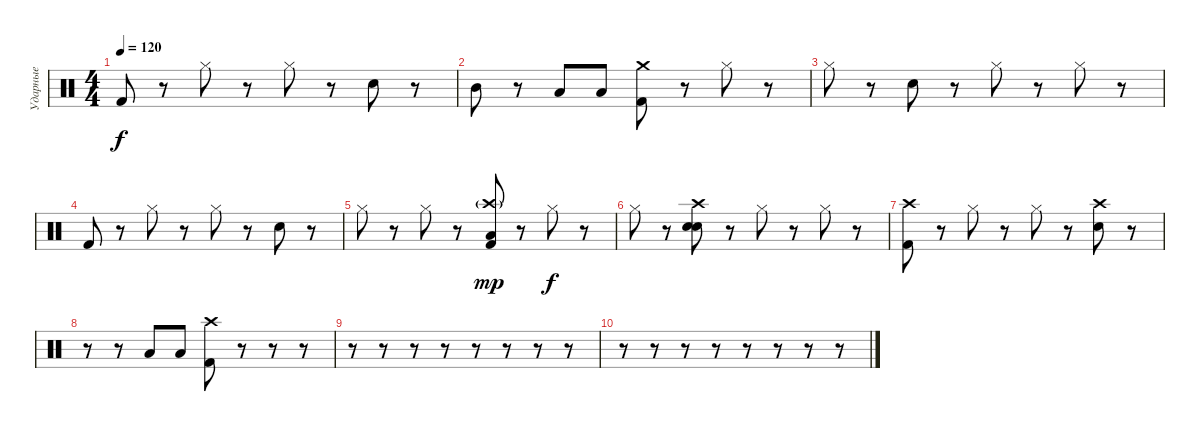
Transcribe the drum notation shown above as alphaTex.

\track ("Ударные" "Ударные") {instrument percussion}
\staff {score}
\articulation defaults
\ts (4 4)
\tempo 120
\clef neutral
\ks c "Kick (hit) 2".8{dy f}
r.8 "Hi-Hat (closed)".8 r.8 "Hi-Hat (closed)".8 r.8 "Snare (hit) 2".8 r.8 |
"Mid Tom (hit)".8 r.8 "Low Tom (hit)".8 "Low Tom (hit)".8 ("Crash medium (hit)" "Kick (hit) 2").8 r.8 "Hi-Hat (closed)".8 r.8 |
"Hi-Hat (closed)".8 r.8 "Snare (hit) 2".8 r.8 "Hi-Hat (closed)".8 r.8 "Hi-Hat (closed)".8 r.8 |
"Kick (hit) 2".8 r.8 "Hi-Hat (closed)".8 r.8 "Hi-Hat (closed)".8 r.8 "Snare (hit) 2".8 r.8 |
"Hi-Hat (closed)".8 r.8 "Hi-Hat (closed)".8 r.8 ("Crash high (hit)"{g} "Kick (hit) 2" "Low Floor Tom (hit)").8{dy mp} r.8 "Hi-Hat (closed)".8{dy f} r.8 |
"Hi-Hat (closed)".8 r.8 ("Crash high (hit)" "Snare (hit) 2" "Electric Snare (hit)").8 r.8 "Hi-Hat (closed)".8 r.8 "Hi-Hat (closed)".8 r.8 |
("Crash high (hit)" "Kick (hit) 2").8 r.8 "Hi-Hat (closed)".8 r.8 "Hi-Hat (closed)".8 r.8 ("Crash high (hit)" "Snare (hit) 2").8 r.8 |
r.8 r.8 "Low Tom (hit)".8 "Low Tom (hit)".8 ("Crash high (hit)" "Kick (hit) 2").8 r.8 r.8 r.8 |
r.8 r.8 r.8 r.8 r.8 r.8 r.8 r.8 |
r.8 r.8 r.8 r.8 r.8 r.8 r.8 r.8
